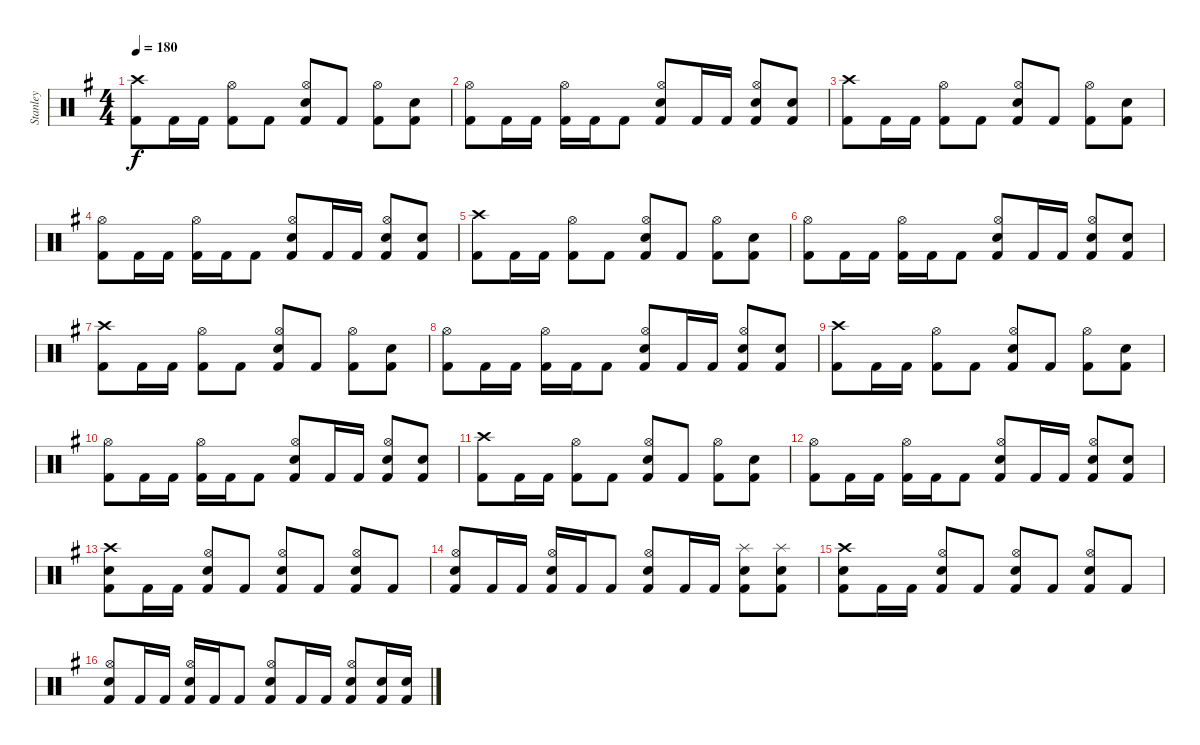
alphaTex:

\track ("Stanley" "Stanley") {instrument percussion}
\staff {score}
\articulation defaults
\ts (4 4)
\tempo 180
\clef neutral
\ks g
("Crash high (hit)" "Kick (hit) 2").8{dy f} "Kick (hit) 2".16 "Kick (hit) 2".16 ("Hi-Hat (open)" "Kick (hit) 2").8 "Kick (hit) 2".8 ("Hi-Hat (open)" "Electric Snare (hit)" "Kick (hit) 2").8 "Kick (hit) 2".8 ("Hi-Hat (open)" "Kick (hit) 2").8 ("Electric Snare (hit)" "Kick (hit) 2").8 |
("Hi-Hat (open)" "Kick (hit) 2").8 "Kick (hit) 2".16 "Kick (hit) 2".16 ("Hi-Hat (open)" "Kick (hit) 2").16 "Kick (hit) 2".16 "Kick (hit) 2".8 ("Hi-Hat (open)" "Electric Snare (hit)" "Kick (hit) 2").8 "Kick (hit) 2".16 "Kick (hit) 2".16 ("Hi-Hat (open)" "Electric Snare (hit)" "Kick (hit) 2").8 ("Electric Snare (hit)" "Kick (hit) 2").8 |
("Crash high (hit)" "Kick (hit) 2").8 "Kick (hit) 2".16 "Kick (hit) 2".16 ("Hi-Hat (open)" "Kick (hit) 2").8 "Kick (hit) 2".8 ("Hi-Hat (open)" "Electric Snare (hit)" "Kick (hit) 2").8 "Kick (hit) 2".8 ("Hi-Hat (open)" "Kick (hit) 2").8 ("Electric Snare (hit)" "Kick (hit) 2").8 |
("Hi-Hat (open)" "Kick (hit) 2").8 "Kick (hit) 2".16 "Kick (hit) 2".16 ("Hi-Hat (open)" "Kick (hit) 2").16 "Kick (hit) 2".16 "Kick (hit) 2".8 ("Hi-Hat (open)" "Electric Snare (hit)" "Kick (hit) 2").8 "Kick (hit) 2".16 "Kick (hit) 2".16 ("Hi-Hat (open)" "Electric Snare (hit)" "Kick (hit) 2").8 ("Electric Snare (hit)" "Kick (hit) 2").8 |
("Crash high (hit)" "Kick (hit) 2").8 "Kick (hit) 2".16 "Kick (hit) 2".16 ("Hi-Hat (open)" "Kick (hit) 2").8 "Kick (hit) 2".8 ("Hi-Hat (open)" "Electric Snare (hit)" "Kick (hit) 2").8 "Kick (hit) 2".8 ("Hi-Hat (open)" "Kick (hit) 2").8 ("Electric Snare (hit)" "Kick (hit) 2").8 |
("Hi-Hat (open)" "Kick (hit) 2").8 "Kick (hit) 2".16 "Kick (hit) 2".16 ("Hi-Hat (open)" "Kick (hit) 2").16 "Kick (hit) 2".16 "Kick (hit) 2".8 ("Hi-Hat (open)" "Electric Snare (hit)" "Kick (hit) 2").8 "Kick (hit) 2".16 "Kick (hit) 2".16 ("Hi-Hat (open)" "Electric Snare (hit)" "Kick (hit) 2").8 ("Electric Snare (hit)" "Kick (hit) 2").8 |
("Crash high (hit)" "Kick (hit) 2").8 "Kick (hit) 2".16 "Kick (hit) 2".16 ("Hi-Hat (open)" "Kick (hit) 2").8 "Kick (hit) 2".8 ("Hi-Hat (open)" "Electric Snare (hit)" "Kick (hit) 2").8 "Kick (hit) 2".8 ("Hi-Hat (open)" "Kick (hit) 2").8 ("Electric Snare (hit)" "Kick (hit) 2").8 |
("Hi-Hat (open)" "Kick (hit) 2").8 "Kick (hit) 2".16 "Kick (hit) 2".16 ("Hi-Hat (open)" "Kick (hit) 2").16 "Kick (hit) 2".16 "Kick (hit) 2".8 ("Hi-Hat (open)" "Electric Snare (hit)" "Kick (hit) 2").8 "Kick (hit) 2".16 "Kick (hit) 2".16 ("Hi-Hat (open)" "Electric Snare (hit)" "Kick (hit) 2").8 ("Electric Snare (hit)" "Kick (hit) 2").8 |
("Crash high (hit)" "Kick (hit) 2").8 "Kick (hit) 2".16 "Kick (hit) 2".16 ("Hi-Hat (open)" "Kick (hit) 2").8 "Kick (hit) 2".8 ("Hi-Hat (open)" "Electric Snare (hit)" "Kick (hit) 2").8 "Kick (hit) 2".8 ("Hi-Hat (open)" "Kick (hit) 2").8 ("Electric Snare (hit)" "Kick (hit) 2").8 |
("Hi-Hat (open)" "Kick (hit) 2").8 "Kick (hit) 2".16 "Kick (hit) 2".16 ("Hi-Hat (open)" "Kick (hit) 2").16 "Kick (hit) 2".16 "Kick (hit) 2".8 ("Hi-Hat (open)" "Electric Snare (hit)" "Kick (hit) 2").8 "Kick (hit) 2".16 "Kick (hit) 2".16 ("Hi-Hat (open)" "Electric Snare (hit)" "Kick (hit) 2").8 ("Electric Snare (hit)" "Kick (hit) 2").8 |
("Crash high (hit)" "Kick (hit) 2").8 "Kick (hit) 2".16 "Kick (hit) 2".16 ("Hi-Hat (open)" "Kick (hit) 2").8 "Kick (hit) 2".8 ("Hi-Hat (open)" "Electric Snare (hit)" "Kick (hit) 2").8 "Kick (hit) 2".8 ("Hi-Hat (open)" "Kick (hit) 2").8 ("Electric Snare (hit)" "Kick (hit) 2").8 |
("Hi-Hat (open)" "Kick (hit) 2").8 "Kick (hit) 2".16 "Kick (hit) 2".16 ("Hi-Hat (open)" "Kick (hit) 2").16 "Kick (hit) 2".16 "Kick (hit) 2".8 ("Hi-Hat (open)" "Electric Snare (hit)" "Kick (hit) 2").8 "Kick (hit) 2".16 "Kick (hit) 2".16 ("Hi-Hat (open)" "Electric Snare (hit)" "Kick (hit) 2").8 ("Electric Snare (hit)" "Kick (hit) 2").8 |
("Crash high (hit)" "Electric Snare (hit)" "Kick (hit) 2").8 "Kick (hit) 2".16 "Kick (hit) 2".16 ("Hi-Hat (open)" "Electric Snare (hit)" "Kick (hit) 2").8 "Kick (hit) 2".8 ("Hi-Hat (open)" "Electric Snare (hit)" "Kick (hit) 2").8 "Kick (hit) 2".8 ("Hi-Hat (open)" "Electric Snare (hit)" "Kick (hit) 2").8 "Kick (hit) 2".8 |
("Hi-Hat (open)" "Electric Snare (hit)" "Kick (hit) 2").8 "Kick (hit) 2".16 "Kick (hit) 2".16 ("Hi-Hat (open)" "Electric Snare (hit)" "Kick (hit) 2").16 "Kick (hit) 2".16 "Kick (hit) 2".8 ("Hi-Hat (open)" "Electric Snare (hit)" "Kick (hit) 2").8 "Kick (hit) 2".16 "Kick (hit) 2".16 ("Splash (hit)" "Electric Snare (hit)" "Kick (hit) 2").8 ("Splash (hit)" "Electric Snare (hit)" "Kick (hit) 2").8 |
("Crash high (hit)" "Electric Snare (hit)" "Kick (hit) 2").8 "Kick (hit) 2".16 "Kick (hit) 2".16 ("Hi-Hat (open)" "Electric Snare (hit)" "Kick (hit) 2").8 "Kick (hit) 2".8 ("Hi-Hat (open)" "Electric Snare (hit)" "Kick (hit) 2").8 "Kick (hit) 2".8 ("Hi-Hat (open)" "Electric Snare (hit)" "Kick (hit) 2").8 "Kick (hit) 2".8 |
("Hi-Hat (open)" "Electric Snare (hit)" "Kick (hit) 2").8 "Kick (hit) 2".16 "Kick (hit) 2".16 ("Hi-Hat (open)" "Electric Snare (hit)" "Kick (hit) 2").16 "Kick (hit) 2".16 "Kick (hit) 2".8 ("Hi-Hat (open)" "Electric Snare (hit)" "Kick (hit) 2").8 "Kick (hit) 2".16 "Kick (hit) 2".16 ("Hi-Hat (open)" "Electric Snare (hit)" "Kick (hit) 2").8 ("Electric Snare (hit)" "Kick (hit) 2").16 ("Electric Snare (hit)" "Kick (hit) 2").16
